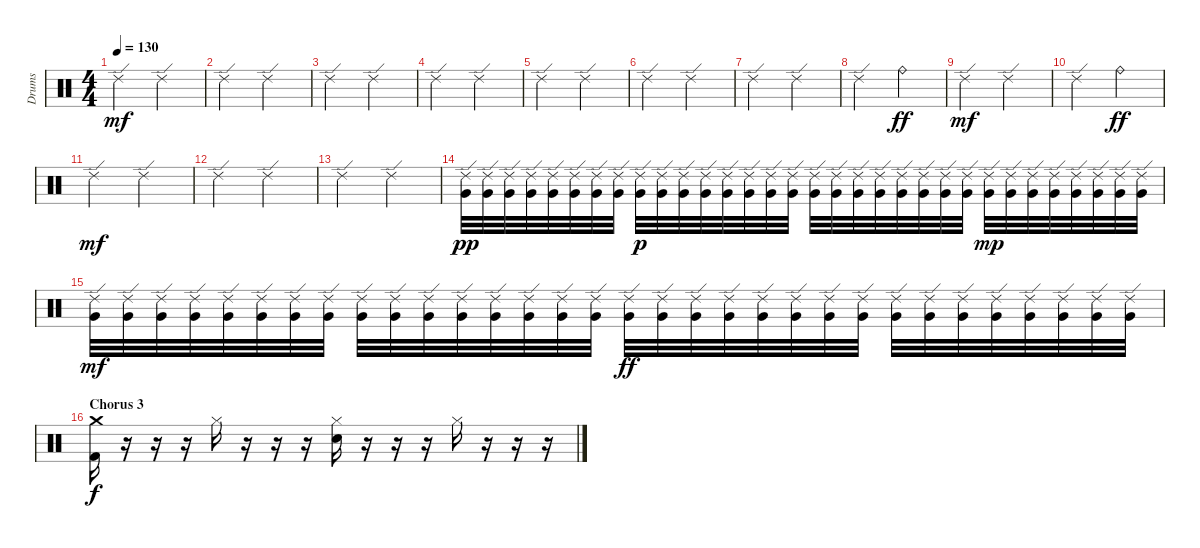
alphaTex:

\track ("Drums" "Drums") {instrument percussion}
\staff {score}
\articulation defaults
\ts (4 4)
\tempo 130
\clef neutral
\ks c "Ride (edge) 2".2{dy mf} "Ride (edge) 2".2
|
"Ride (edge) 2".2 "Ride (edge) 2".2 |
"Ride (edge) 2".2 "Ride (edge) 2".2 |
"Ride (edge) 2".2 "Ride (edge) 2".2 |
"Ride (edge) 2".2 "Ride (edge) 2".2 |
"Ride (edge) 2".2 "Ride (edge) 2".2 |
"Ride (edge) 2".2 "Ride (edge) 2".2 |
"Ride (edge) 2".2 "Ride (bell)".2{dy ff} |
"Ride (edge) 2".2{dy mf} "Ride (edge) 2".2 |
"Ride (edge) 2".2 "Ride (bell)".2{dy ff} |
"Ride (edge) 2".2{dy mf} "Ride (edge) 2".2 |
"Ride (edge) 2".2 "Ride (edge) 2".2 |
"Ride (edge) 2".2 "Ride (edge) 2".2 |
("Ride (edge) 2" "Very Low Tom (hit)").32{dy pp} ("Ride (edge) 2" "Very Low Tom (hit)").32 ("Ride (edge) 2" "Very Low Tom (hit)").32 ("Ride (edge) 2" "Very Low Tom (hit)").32 ("Ride (edge) 2" "Very Low Tom (hit)").32 ("Ride (edge) 2" "Very Low Tom (hit)").32 ("Ride (edge) 2" "Very Low Tom (hit)").32 ("Ride (edge) 2" "Very Low Tom (hit)").32 ("Ride (edge) 2" "Very Low Tom (hit)").32{dy p} ("Ride (edge) 2" "Very Low Tom (hit)").32 ("Ride (edge) 2" "Very Low Tom (hit)").32 ("Ride (edge) 2" "Very Low Tom (hit)").32 ("Ride (edge) 2" "Very Low Tom (hit)").32 ("Ride (edge) 2" "Very Low Tom (hit)").32 ("Ride (edge) 2" "Very Low Tom (hit)").32 ("Ride (edge) 2" "Very Low Tom (hit)").32 ("Ride (edge) 2" "Very Low Tom (hit)").32 ("Ride (edge) 2" "Very Low Tom (hit)").32 ("Ride (edge) 2" "Very Low Tom (hit)").32 ("Ride (edge) 2" "Very Low Tom (hit)").32 ("Ride (edge) 2" "Very Low Tom (hit)").32 ("Ride (edge) 2" "Very Low Tom (hit)").32 ("Ride (edge) 2" "Very Low Tom (hit)").32 ("Ride (edge) 2" "Very Low Tom (hit)").32 ("Ride (edge) 2" "Very Low Tom (hit)").32{dy mp} ("Ride (edge) 2" "Very Low Tom (hit)").32 ("Ride (edge) 2" "Very Low Tom (hit)").32 ("Ride (edge) 2" "Very Low Tom (hit)").32 ("Ride (edge) 2" "Very Low Tom (hit)").32 ("Ride (edge) 2" "Very Low Tom (hit)").32 ("Ride (edge) 2" "Very Low Tom (hit)").32 ("Ride (edge) 2" "Very Low Tom (hit)").32 |
("Ride (edge) 2" "Very Low Tom (hit)").32{dy mf} ("Ride (edge) 2" "Very Low Tom (hit)").32 ("Ride (edge) 2" "Very Low Tom (hit)").32 ("Ride (edge) 2" "Very Low Tom (hit)").32 ("Ride (edge) 2" "Very Low Tom (hit)").32 ("Ride (edge) 2" "Very Low Tom (hit)").32 ("Ride (edge) 2" "Very Low Tom (hit)").32 ("Ride (edge) 2" "Very Low Tom (hit)").32 ("Ride (edge) 2" "Very Low Tom (hit)").32 ("Ride (edge) 2" "Very Low Tom (hit)").32 ("Ride (edge) 2" "Very Low Tom (hit)").32 ("Ride (edge) 2" "Very Low Tom (hit)").32 ("Ride (edge) 2" "Very Low Tom (hit)").32 ("Ride (edge) 2" "Very Low Tom (hit)").32 ("Ride (edge) 2" "Very Low Tom (hit)").32 ("Ride (edge) 2" "Very Low Tom (hit)").32 ("Ride (edge) 2" "Very Low Tom (hit)").32{dy ff} ("Ride (edge) 2" "Very Low Tom (hit)").32 ("Ride (edge) 2" "Very Low Tom (hit)").32 ("Ride (edge) 2" "Very Low Tom (hit)").32 ("Ride (edge) 2" "Very Low Tom (hit)").32 ("Ride (edge) 2" "Very Low Tom (hit)").32 ("Ride (edge) 2" "Very Low Tom (hit)").32 ("Ride (edge) 2" "Very Low Tom (hit)").32 ("Ride (edge) 2" "Very Low Tom (hit)").32 ("Ride (edge) 2" "Very Low Tom (hit)").32 ("Ride (edge) 2" "Very Low Tom (hit)").32 ("Ride (edge) 2" "Very Low Tom (hit)").32 ("Ride (edge) 2" "Very Low Tom (hit)").32 ("Ride (edge) 2" "Very Low Tom (hit)").32 ("Ride (edge) 2" "Very Low Tom (hit)").32 ("Ride (edge) 2" "Very Low Tom (hit)").32 |
\section ("" "Chorus 3")
("Crash medium (hit)" "Kick (hit) 2").16{dy f} r.16 r.16 r.16 "Hi-Hat (closed)".16 r.16 r.16 r.16 ("Hi-Hat (closed)" "Snare (hit) 2").16 r.16 r.16 r.16 "Hi-Hat (closed)".16 r.16 r.16 r.16
